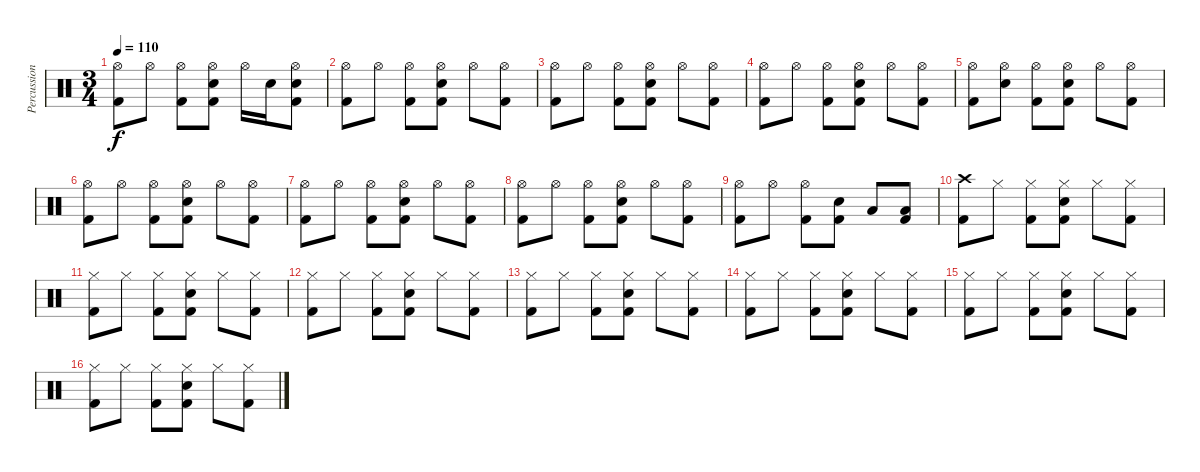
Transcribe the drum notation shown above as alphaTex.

\track ("Percussion" "Percussion") {instrument percussion}
\staff {score}
\articulation defaults
\ts (3 4)
\tempo 110
\clef neutral
\ks c
("Hi-Hat (open)" "Kick (hit) 2").8{dy f} "Hi-Hat (open)".8 ("Hi-Hat (open)" "Kick (hit) 2").8 ("Hi-Hat (open)" "Electric Snare (hit)" "Kick (hit) 2").8 "Hi-Hat (open)".16 "Electric Snare (hit)".16 ("Hi-Hat (open)" "Electric Snare (hit)" "Kick (hit) 2").8 |
("Hi-Hat (open)" "Kick (hit) 2").8 "Hi-Hat (open)".8 ("Hi-Hat (open)" "Kick (hit) 2").8 ("Hi-Hat (open)" "Electric Snare (hit)" "Kick (hit) 2").8 "Hi-Hat (open)".8 ("Hi-Hat (open)" "Kick (hit) 2").8 |
("Hi-Hat (open)" "Kick (hit) 2").8 "Hi-Hat (open)".8 ("Hi-Hat (open)" "Kick (hit) 2").8 ("Hi-Hat (open)" "Electric Snare (hit)" "Kick (hit) 2").8 "Hi-Hat (open)".8 ("Hi-Hat (open)" "Kick (hit) 2").8 |
("Hi-Hat (open)" "Kick (hit) 2").8 "Hi-Hat (open)".8 ("Hi-Hat (open)" "Kick (hit) 2").8 ("Hi-Hat (open)" "Electric Snare (hit)" "Kick (hit) 2").8 "Hi-Hat (open)".8 ("Hi-Hat (open)" "Kick (hit) 2").8 |
("Hi-Hat (open)" "Kick (hit) 2").8 ("Hi-Hat (open)" "Electric Snare (hit)").8 ("Hi-Hat (open)" "Kick (hit) 2").8 ("Hi-Hat (open)" "Electric Snare (hit)" "Kick (hit) 2").8 "Hi-Hat (open)".8 ("Hi-Hat (open)" "Kick (hit) 2").8 |
("Hi-Hat (open)" "Kick (hit) 2").8 "Hi-Hat (open)".8 ("Hi-Hat (open)" "Kick (hit) 2").8 ("Hi-Hat (open)" "Electric Snare (hit)" "Kick (hit) 2").8 "Hi-Hat (open)".8 ("Hi-Hat (open)" "Kick (hit) 2").8 |
("Hi-Hat (open)" "Kick (hit) 2").8 "Hi-Hat (open)".8 ("Hi-Hat (open)" "Kick (hit) 2").8 ("Hi-Hat (open)" "Electric Snare (hit)" "Kick (hit) 2").8 "Hi-Hat (open)".8 ("Hi-Hat (open)" "Kick (hit) 2").8 |
("Hi-Hat (open)" "Kick (hit) 2").8 "Hi-Hat (open)".8 ("Hi-Hat (open)" "Kick (hit) 2").8 ("Hi-Hat (open)" "Electric Snare (hit)" "Kick (hit) 2").8 "Hi-Hat (open)".8 ("Hi-Hat (open)" "Kick (hit) 2").8 |
("Hi-Hat (open)" "Kick (hit) 2").8 "Hi-Hat (open)".8 ("Hi-Hat (open)" "Kick (hit) 2").8 ("Electric Snare (hit)" "Kick (hit) 2").8 "Low Tom (hit)".8 ("Low Floor Tom (hit)" "Kick (hit) 2").8 |
("Crash high (hit)" "Kick (hit) 2").8 "Hi-Hat (closed)".8 ("Hi-Hat (closed)" "Kick (hit) 2").8 ("Hi-Hat (closed)" "Electric Snare (hit)" "Kick (hit) 2").8 "Hi-Hat (closed)".8 ("Hi-Hat (closed)" "Kick (hit) 2").8 |
("Hi-Hat (closed)" "Kick (hit) 2").8 "Hi-Hat (closed)".8 ("Hi-Hat (closed)" "Kick (hit) 2").8 ("Hi-Hat (closed)" "Electric Snare (hit)" "Kick (hit) 2").8 "Hi-Hat (closed)".8 ("Hi-Hat (closed)" "Kick (hit) 2").8 |
("Hi-Hat (closed)" "Kick (hit) 2").8 "Hi-Hat (closed)".8 ("Hi-Hat (closed)" "Kick (hit) 2").8 ("Hi-Hat (closed)" "Electric Snare (hit)" "Kick (hit) 2").8 "Hi-Hat (closed)".8 ("Hi-Hat (closed)" "Kick (hit) 2").8 |
("Hi-Hat (closed)" "Kick (hit) 2").8 "Hi-Hat (closed)".8 ("Hi-Hat (closed)" "Kick (hit) 2").8 ("Hi-Hat (closed)" "Electric Snare (hit)" "Kick (hit) 2").8 "Hi-Hat (closed)".8 ("Hi-Hat (closed)" "Kick (hit) 2").8 |
("Hi-Hat (closed)" "Kick (hit) 2").8 "Hi-Hat (closed)".8 ("Hi-Hat (closed)" "Kick (hit) 2").8 ("Hi-Hat (closed)" "Electric Snare (hit)" "Kick (hit) 2").8 "Hi-Hat (closed)".8 ("Hi-Hat (closed)" "Kick (hit) 2").8 |
("Hi-Hat (closed)" "Kick (hit) 2").8 "Hi-Hat (closed)".8 ("Hi-Hat (closed)" "Kick (hit) 2").8 ("Hi-Hat (closed)" "Electric Snare (hit)" "Kick (hit) 2").8 "Hi-Hat (closed)".8 ("Hi-Hat (closed)" "Kick (hit) 2").8 |
("Hi-Hat (closed)" "Kick (hit) 2").8 "Hi-Hat (closed)".8 ("Hi-Hat (closed)" "Kick (hit) 2").8 ("Hi-Hat (closed)" "Electric Snare (hit)" "Kick (hit) 2").8 "Hi-Hat (closed)".8 ("Hi-Hat (closed)" "Kick (hit) 2").8
